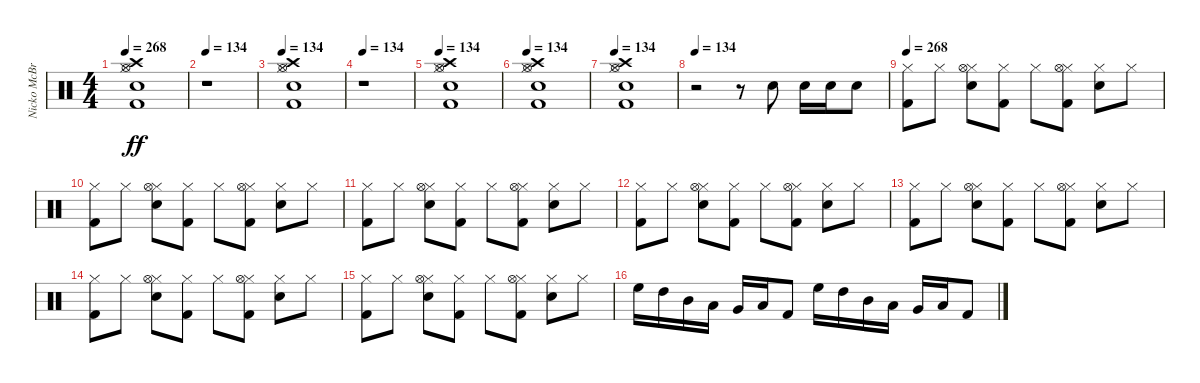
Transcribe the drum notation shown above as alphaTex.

\track ("Nicko McBrain" "Nicko McBr") {instrument percussion}
\staff {score}
\articulation defaults
\ts (4 4)
\tempo 268
\tempo 134
\tempo 268
\clef neutral
\ks c
("Kick (hit) 2" "Snare (hit) 2" "Hi-Hat (closed)" "Hi-Hat (open)" "Crash high (hit)").1{dy ff} |
\tempo 134
r.1 |
\tempo 134
("Kick (hit) 2" "Snare (hit) 2" "Hi-Hat (closed)" "Hi-Hat (open)" "Crash high (hit)").1 |
\tempo 134
r.1 |
\tempo 134
("Kick (hit) 2" "Snare (hit) 2" "Hi-Hat (closed)" "Hi-Hat (open)" "Crash high (hit)").1 |
\tempo 134
("Kick (hit) 2" "Snare (hit) 2" "Hi-Hat (closed)" "Hi-Hat (open)" "Crash high (hit)").1 |
\tempo 134
("Kick (hit) 2" "Snare (hit) 2" "Hi-Hat (closed)" "Hi-Hat (open)" "Crash high (hit)").1 |
\tempo 134
r.2 r.8 "Snare (hit) 2".8 "Snare (hit) 2".16 "Snare (hit) 2".16 "Snare (hit) 2".8 |
\tempo 268
("Kick (hit) 2" "Hi-Hat (closed)").8 "Hi-Hat (closed)".8 ("Snare (hit) 2" "Hi-Hat (closed)" "Hi-Hat (open)").8 ("Kick (hit) 2" "Hi-Hat (closed)").8 "Hi-Hat (closed)".8 ("Kick (hit) 2" "Hi-Hat (closed)" "Hi-Hat (open)").8 ("Snare (hit) 2" "Hi-Hat (closed)").8 "Hi-Hat (closed)".8 |
("Kick (hit) 2" "Hi-Hat (closed)").8 "Hi-Hat (closed)".8 ("Snare (hit) 2" "Hi-Hat (closed)" "Hi-Hat (open)").8 ("Kick (hit) 2" "Hi-Hat (closed)").8 "Hi-Hat (closed)".8 ("Kick (hit) 2" "Hi-Hat (closed)" "Hi-Hat (open)").8 ("Snare (hit) 2" "Hi-Hat (closed)").8 "Hi-Hat (closed)".8 |
("Kick (hit) 2" "Hi-Hat (closed)").8 "Hi-Hat (closed)".8 ("Snare (hit) 2" "Hi-Hat (closed)" "Hi-Hat (open)").8 ("Kick (hit) 2" "Hi-Hat (closed)").8 "Hi-Hat (closed)".8 ("Kick (hit) 2" "Hi-Hat (closed)" "Hi-Hat (open)").8 ("Snare (hit) 2" "Hi-Hat (closed)").8 "Hi-Hat (closed)".8 |
("Kick (hit) 2" "Hi-Hat (closed)").8 "Hi-Hat (closed)".8 ("Snare (hit) 2" "Hi-Hat (closed)" "Hi-Hat (open)").8 ("Kick (hit) 2" "Hi-Hat (closed)").8 "Hi-Hat (closed)".8 ("Kick (hit) 2" "Hi-Hat (closed)" "Hi-Hat (open)").8 ("Snare (hit) 2" "Hi-Hat (closed)").8 "Hi-Hat (closed)".8 |
("Kick (hit) 2" "Hi-Hat (closed)").8 "Hi-Hat (closed)".8 ("Snare (hit) 2" "Hi-Hat (closed)" "Hi-Hat (open)").8 ("Kick (hit) 2" "Hi-Hat (closed)").8 "Hi-Hat (closed)".8 ("Kick (hit) 2" "Hi-Hat (closed)" "Hi-Hat (open)").8 ("Snare (hit) 2" "Hi-Hat (closed)").8 "Hi-Hat (closed)".8 |
("Kick (hit) 2" "Hi-Hat (closed)").8 "Hi-Hat (closed)".8 ("Snare (hit) 2" "Hi-Hat (closed)" "Hi-Hat (open)").8 ("Kick (hit) 2" "Hi-Hat (closed)").8 "Hi-Hat (closed)".8 ("Kick (hit) 2" "Hi-Hat (closed)" "Hi-Hat (open)").8 ("Snare (hit) 2" "Hi-Hat (closed)").8 "Hi-Hat (closed)".8 |
("Kick (hit) 2" "Hi-Hat (closed)").8 "Hi-Hat (closed)".8 ("Snare (hit) 2" "Hi-Hat (closed)" "Hi-Hat (open)").8 ("Kick (hit) 2" "Hi-Hat (closed)").8 "Hi-Hat (closed)".8 ("Kick (hit) 2" "Hi-Hat (closed)" "Hi-Hat (open)").8 ("Snare (hit) 2" "Hi-Hat (closed)").8 "Hi-Hat (closed)".8 |
"High Floor Tom (hit)".16 "High Tom (hit)".16 "Mid Tom (hit)".16 "Low Tom (hit)".16 "Very Low Tom (hit)".16 "Low Floor Tom (hit)".16 "Kick (hit) 2".8 "High Floor Tom (hit)".16 "High Tom (hit)".16 "Mid Tom (hit)".16 "Low Tom (hit)".16 "Very Low Tom (hit)".16 "Low Floor Tom (hit)".16 "Kick (hit) 2".8
